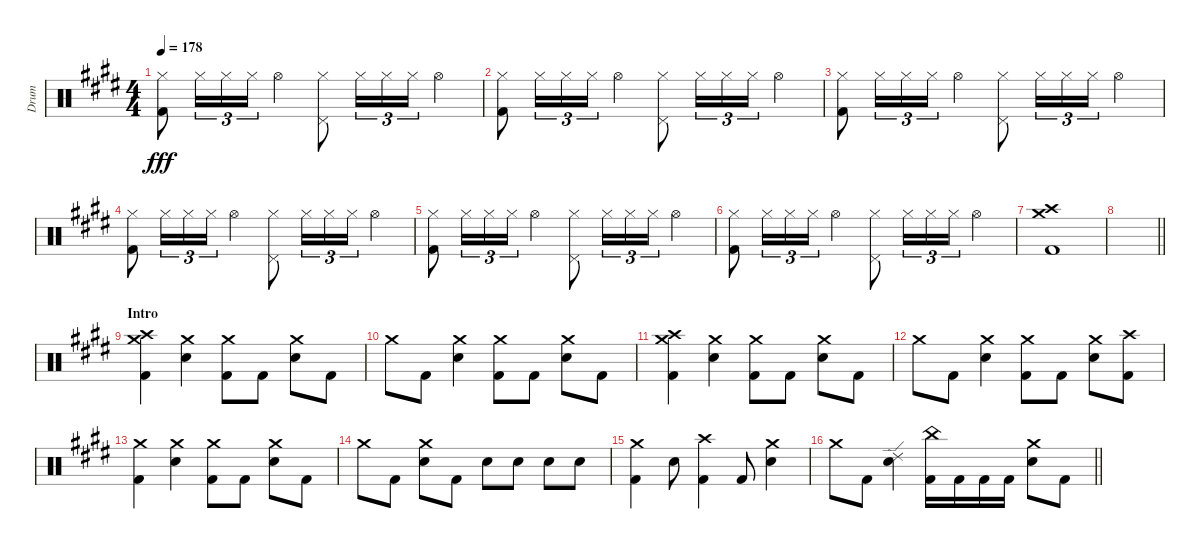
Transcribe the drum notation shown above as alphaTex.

\track ("Drum" "Drum") {instrument percussion}
\staff {score}
\articulation defaults
\ts (4 4)
\tempo 178
\clef neutral
\ks e
("Hi-Hat (closed)" "Kick (hit) 2").8{dy fff} "Hi-Hat (closed)".16{tu (3 2)} "Hi-Hat (closed)".16{tu (3 2)} "Hi-Hat (closed)".16{tu (3 2)} "Hi-Hat (open)".4 ("Hi-Hat (closed)" "Pedal Hi-Hat (hit)").8 "Hi-Hat (closed)".16{tu (3 2)} "Hi-Hat (closed)".16{tu (3 2)} "Hi-Hat (closed)".16{tu (3 2)} "Hi-Hat (open)".4 |
("Hi-Hat (closed)" "Kick (hit) 2").8 "Hi-Hat (closed)".16{tu (3 2)} "Hi-Hat (closed)".16{tu (3 2)} "Hi-Hat (closed)".16{tu (3 2)} "Hi-Hat (open)".4 ("Hi-Hat (closed)" "Pedal Hi-Hat (hit)").8 "Hi-Hat (closed)".16{tu (3 2)} "Hi-Hat (closed)".16{tu (3 2)} "Hi-Hat (closed)".16{tu (3 2)} "Hi-Hat (open)".4 |
("Hi-Hat (closed)" "Kick (hit) 2").8 "Hi-Hat (closed)".16{tu (3 2)} "Hi-Hat (closed)".16{tu (3 2)} "Hi-Hat (closed)".16{tu (3 2)} "Hi-Hat (open)".4 ("Hi-Hat (closed)" "Pedal Hi-Hat (hit)").8 "Hi-Hat (closed)".16{tu (3 2)} "Hi-Hat (closed)".16{tu (3 2)} "Hi-Hat (closed)".16{tu (3 2)} "Hi-Hat (open)".4 |
("Hi-Hat (closed)" "Kick (hit) 2").8 "Hi-Hat (closed)".16{tu (3 2)} "Hi-Hat (closed)".16{tu (3 2)} "Hi-Hat (closed)".16{tu (3 2)} "Hi-Hat (open)".4 ("Hi-Hat (closed)" "Pedal Hi-Hat (hit)").8 "Hi-Hat (closed)".16{tu (3 2)} "Hi-Hat (closed)".16{tu (3 2)} "Hi-Hat (closed)".16{tu (3 2)} "Hi-Hat (open)".4 |
("Hi-Hat (closed)" "Kick (hit) 2").8 "Hi-Hat (closed)".16{tu (3 2)} "Hi-Hat (closed)".16{tu (3 2)} "Hi-Hat (closed)".16{tu (3 2)} "Hi-Hat (open)".4 ("Hi-Hat (closed)" "Pedal Hi-Hat (hit)").8 "Hi-Hat (closed)".16{tu (3 2)} "Hi-Hat (closed)".16{tu (3 2)} "Hi-Hat (closed)".16{tu (3 2)} "Hi-Hat (open)".4 |
("Hi-Hat (closed)" "Kick (hit) 2").8 "Hi-Hat (closed)".16{tu (3 2)} "Hi-Hat (closed)".16{tu (3 2)} "Hi-Hat (closed)".16{tu (3 2)} "Hi-Hat (open)".4 ("Hi-Hat (closed)" "Pedal Hi-Hat (hit)").8 "Hi-Hat (closed)".16{tu (3 2)} "Hi-Hat (closed)".16{tu (3 2)} "Hi-Hat (closed)".16{tu (3 2)} "Hi-Hat (open)".4 |
("Crash medium (hit)" "Crash high (hit)" "Kick (hit) 2").1 |
\barLineRight lightlight
|
\section ("" "Intro")
("Crash medium (hit)" "Crash high (hit)" "Kick (hit) 2").4 ("Crash medium (hit)" "Electric Snare (hit)").4 ("Crash medium (hit)" "Kick (hit) 2").8 "Kick (hit) 2".8 ("Crash medium (hit)" "Electric Snare (hit)").8 "Kick (hit) 2".8 |
"Crash medium (hit)".8 "Kick (hit) 2".8 ("Crash medium (hit)" "Electric Snare (hit)").4 ("Crash medium (hit)" "Kick (hit) 2").8 "Kick (hit) 2".8 ("Crash medium (hit)" "Electric Snare (hit)").8 "Kick (hit) 2".8 |
("Crash medium (hit)" "Crash high (hit)" "Kick (hit) 2").4 ("Crash medium (hit)" "Electric Snare (hit)").4 ("Crash medium (hit)" "Kick (hit) 2").8 "Kick (hit) 2".8 ("Crash medium (hit)" "Electric Snare (hit)").8 "Kick (hit) 2".8 |
"Crash medium (hit)".8 "Kick (hit) 2".8 ("Crash medium (hit)" "Electric Snare (hit)").4 ("Crash medium (hit)" "Kick (hit) 2").8 "Kick (hit) 2".8 ("Crash medium (hit)" "Electric Snare (hit)").8 ("Crash high (hit)" "Kick (hit) 2").8 |
("Crash medium (hit)" "Kick (hit) 2").4 ("Crash medium (hit)" "Electric Snare (hit)").4 ("Crash medium (hit)" "Kick (hit) 2").8 "Kick (hit) 2".8 ("Crash medium (hit)" "Electric Snare (hit)").8 "Kick (hit) 2".8 |
"Crash medium (hit)".8 "Kick (hit) 2".8 ("Crash medium (hit)" "Electric Snare (hit)").8 "Kick (hit) 2".8 "Electric Snare (hit)".8 "Electric Snare (hit)".8 "Electric Snare (hit)".8 "Electric Snare (hit)".8 |
("Crash medium (hit)" "Kick (hit) 2").4 "Electric Snare (hit)".8 ("Crash high (hit)" "Kick (hit) 2").4 "Kick (hit) 2".8 ("Crash medium (hit)" "Electric Snare (hit)").4 |
\barLineRight lightlight "Crash medium (hit)".8 "Kick (hit) 2".8
("Ride (edge) 2" "Electric Snare (hit)").4 ("China (hit)" "Kick (hit) 2").16 "Kick (hit) 2".16 "Kick (hit) 2".16 "Kick (hit) 2".16 ("Crash medium (hit)" "Electric Snare (hit)").8 "Kick (hit) 2".8
